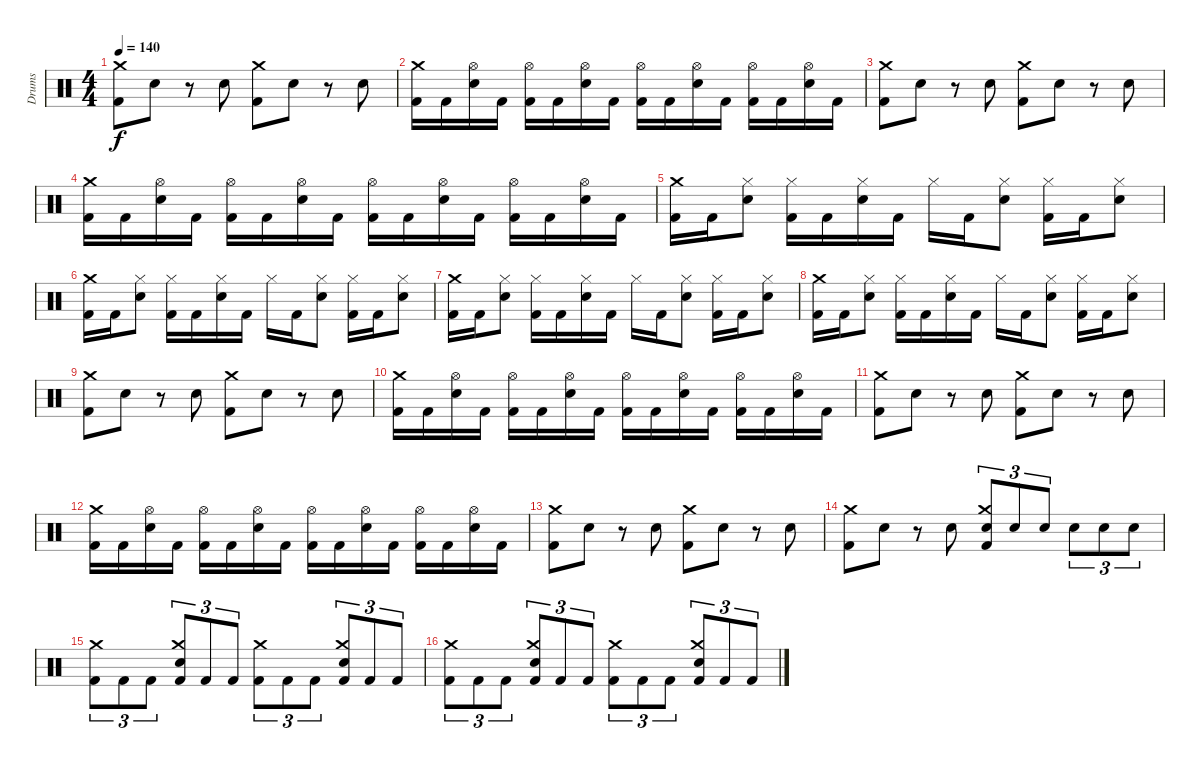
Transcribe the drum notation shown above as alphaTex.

\track ("Drums" "Drums") {instrument percussion}
\staff {score}
\articulation defaults
\ts (4 4)
\tempo 140
\clef neutral
\ks c
("Kick (hit) 2" "Crash medium (hit)").8{dy f} "Electric Snare (hit)".8 r.8 "Electric Snare (hit)".8 ("Kick (hit) 2" "Crash medium (hit)").8 "Electric Snare (hit)".8 r.8 "Electric Snare (hit)".8 |
("Kick (hit) 2" "Crash medium (hit)").16 "Kick (hit) 2".16 ("Electric Snare (hit)" "Hi-Hat (open)").16 "Kick (hit) 2".16 ("Kick (hit) 2" "Hi-Hat (open)").16 "Kick (hit) 2".16 ("Electric Snare (hit)" "Hi-Hat (open)").16 "Kick (hit) 2".16 ("Kick (hit) 2" "Hi-Hat (open)").16 "Kick (hit) 2".16 ("Electric Snare (hit)" "Hi-Hat (open)").16 "Kick (hit) 2".16 ("Kick (hit) 2" "Hi-Hat (open)").16 "Kick (hit) 2".16 ("Electric Snare (hit)" "Hi-Hat (open)").16 "Kick (hit) 2".16 |
("Kick (hit) 2" "Crash medium (hit)").8 "Electric Snare (hit)".8 r.8 "Electric Snare (hit)".8 ("Kick (hit) 2" "Crash medium (hit)").8 "Electric Snare (hit)".8 r.8 "Electric Snare (hit)".8 |
("Kick (hit) 2" "Crash medium (hit)").16 "Kick (hit) 2".16 ("Electric Snare (hit)" "Hi-Hat (open)").16 "Kick (hit) 2".16 ("Kick (hit) 2" "Hi-Hat (open)").16 "Kick (hit) 2".16 ("Electric Snare (hit)" "Hi-Hat (open)").16 "Kick (hit) 2".16 ("Kick (hit) 2" "Hi-Hat (open)").16 "Kick (hit) 2".16 ("Electric Snare (hit)" "Hi-Hat (open)").16 "Kick (hit) 2".16 ("Kick (hit) 2" "Hi-Hat (open)").16 "Kick (hit) 2".16 ("Electric Snare (hit)" "Hi-Hat (open)").16 "Kick (hit) 2".16 |
("Kick (hit) 2" "Crash medium (hit)").16 "Kick (hit) 2".16 ("Electric Snare (hit)" "Hi-Hat (closed)").8 ("Kick (hit) 2" "Hi-Hat (closed)").16 "Kick (hit) 2".16 ("Electric Snare (hit)" "Hi-Hat (closed)").16 "Kick (hit) 2".16 "Hi-Hat (closed)".16 "Kick (hit) 2".16 ("Electric Snare (hit)" "Hi-Hat (closed)").8 ("Kick (hit) 2" "Hi-Hat (closed)").16 "Kick (hit) 2".16 ("Electric Snare (hit)" "Hi-Hat (closed)").8 |
("Kick (hit) 2" "Crash medium (hit)").16 "Kick (hit) 2".16 ("Electric Snare (hit)" "Hi-Hat (closed)").8 ("Kick (hit) 2" "Hi-Hat (closed)").16 "Kick (hit) 2".16 ("Electric Snare (hit)" "Hi-Hat (closed)").16 "Kick (hit) 2".16 "Hi-Hat (closed)".16 "Kick (hit) 2".16 ("Electric Snare (hit)" "Hi-Hat (closed)").8 ("Kick (hit) 2" "Hi-Hat (closed)").16 "Kick (hit) 2".16 ("Electric Snare (hit)" "Hi-Hat (closed)").8 |
("Kick (hit) 2" "Crash medium (hit)").16 "Kick (hit) 2".16 ("Electric Snare (hit)" "Hi-Hat (closed)").8 ("Kick (hit) 2" "Hi-Hat (closed)").16 "Kick (hit) 2".16 ("Electric Snare (hit)" "Hi-Hat (closed)").16 "Kick (hit) 2".16 "Hi-Hat (closed)".16 "Kick (hit) 2".16 ("Electric Snare (hit)" "Hi-Hat (closed)").8 ("Kick (hit) 2" "Hi-Hat (closed)").16 "Kick (hit) 2".16 ("Electric Snare (hit)" "Hi-Hat (closed)").8 |
("Kick (hit) 2" "Crash medium (hit)").16 "Kick (hit) 2".16 ("Electric Snare (hit)" "Hi-Hat (closed)").8 ("Kick (hit) 2" "Hi-Hat (closed)").16 "Kick (hit) 2".16 ("Electric Snare (hit)" "Hi-Hat (closed)").16 "Kick (hit) 2".16 "Hi-Hat (closed)".16 "Kick (hit) 2".16 ("Electric Snare (hit)" "Hi-Hat (closed)").8 ("Kick (hit) 2" "Hi-Hat (closed)").16 "Kick (hit) 2".16 ("Electric Snare (hit)" "Hi-Hat (closed)").8 |
("Kick (hit) 2" "Crash medium (hit)").8 "Electric Snare (hit)".8 r.8 "Electric Snare (hit)".8 ("Kick (hit) 2" "Crash medium (hit)").8 "Electric Snare (hit)".8 r.8 "Electric Snare (hit)".8 |
("Kick (hit) 2" "Crash medium (hit)").16 "Kick (hit) 2".16 ("Electric Snare (hit)" "Hi-Hat (open)").16 "Kick (hit) 2".16 ("Kick (hit) 2" "Hi-Hat (open)").16 "Kick (hit) 2".16 ("Electric Snare (hit)" "Hi-Hat (open)").16 "Kick (hit) 2".16 ("Kick (hit) 2" "Hi-Hat (open)").16 "Kick (hit) 2".16 ("Electric Snare (hit)" "Hi-Hat (open)").16 "Kick (hit) 2".16 ("Kick (hit) 2" "Hi-Hat (open)").16 "Kick (hit) 2".16 ("Electric Snare (hit)" "Hi-Hat (open)").16 "Kick (hit) 2".16 |
("Kick (hit) 2" "Crash medium (hit)").8 "Electric Snare (hit)".8 r.8 "Electric Snare (hit)".8 ("Kick (hit) 2" "Crash medium (hit)").8 "Electric Snare (hit)".8 r.8 "Electric Snare (hit)".8 |
("Kick (hit) 2" "Crash medium (hit)").16 "Kick (hit) 2".16 ("Electric Snare (hit)" "Hi-Hat (open)").16 "Kick (hit) 2".16 ("Kick (hit) 2" "Hi-Hat (open)").16 "Kick (hit) 2".16 ("Electric Snare (hit)" "Hi-Hat (open)").16 "Kick (hit) 2".16 ("Kick (hit) 2" "Hi-Hat (open)").16 "Kick (hit) 2".16 ("Electric Snare (hit)" "Hi-Hat (open)").16 "Kick (hit) 2".16 ("Kick (hit) 2" "Hi-Hat (open)").16 "Kick (hit) 2".16 ("Electric Snare (hit)" "Hi-Hat (open)").16 "Kick (hit) 2".16 |
("Kick (hit) 2" "Crash medium (hit)").8 "Electric Snare (hit)".8 r.8 "Electric Snare (hit)".8 ("Kick (hit) 2" "Crash medium (hit)").8 "Electric Snare (hit)".8 r.8 "Electric Snare (hit)".8 |
("Kick (hit) 2" "Crash medium (hit)").8 "Electric Snare (hit)".8 r.8 "Electric Snare (hit)".8 ("Kick (hit) 2" "Crash medium (hit)" "Electric Snare (hit)").8{tu (3 2)} "Electric Snare (hit)".8{tu (3 2)} "Electric Snare (hit)".8{tu (3 2)} "Electric Snare (hit)".8{tu (3 2)} "Electric Snare (hit)".8{tu (3 2)} "Electric Snare (hit)".8{tu (3 2)} |
("Kick (hit) 2" "Crash medium (hit)").8{tu (3 2)} "Kick (hit) 2".8{tu (3 2)} "Kick (hit) 2".8{tu (3 2)} ("Electric Snare (hit)" "Kick (hit) 2" "Crash medium (hit)").8{tu (3 2)} "Kick (hit) 2".8{tu (3 2)} "Kick (hit) 2".8{tu (3 2)} ("Kick (hit) 2" "Crash medium (hit)").8{tu (3 2)} "Kick (hit) 2".8{tu (3 2)} "Kick (hit) 2".8{tu (3 2)} ("Electric Snare (hit)" "Kick (hit) 2" "Crash medium (hit)").8{tu (3 2)} "Kick (hit) 2".8{tu (3 2)} "Kick (hit) 2".8{tu (3 2)} |
("Kick (hit) 2" "Crash medium (hit)").8{tu (3 2)} "Kick (hit) 2".8{tu (3 2)} "Kick (hit) 2".8{tu (3 2)} ("Electric Snare (hit)" "Kick (hit) 2" "Crash medium (hit)").8{tu (3 2)} "Kick (hit) 2".8{tu (3 2)} "Kick (hit) 2".8{tu (3 2)} ("Kick (hit) 2" "Crash medium (hit)").8{tu (3 2)} "Kick (hit) 2".8{tu (3 2)} "Kick (hit) 2".8{tu (3 2)} ("Electric Snare (hit)" "Kick (hit) 2" "Crash medium (hit)").8{tu (3 2)} "Kick (hit) 2".8{tu (3 2)} "Kick (hit) 2".8{tu (3 2)}
